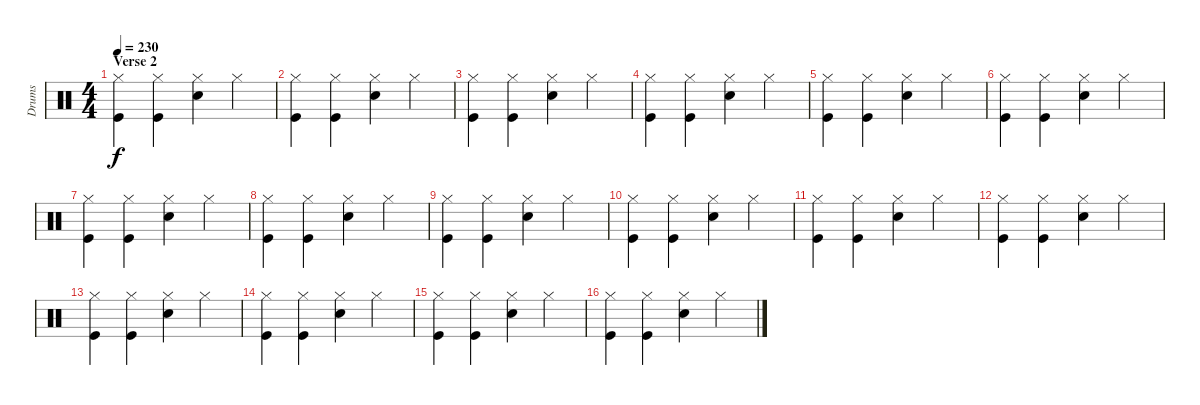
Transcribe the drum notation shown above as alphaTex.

\track ("Drums" "Drums") {instrument percussion}
\staff {score}
\articulation defaults
\ts (4 4)
\section ("" "Verse 2")
\tempo 230
\clef neutral
\ks c
("Hi-Hat (closed)" "Kick (hit)").4{dy f} ("Hi-Hat (closed)" "Kick (hit)").4 ("Hi-Hat (closed)" "Snare (hit) 2").4 "Hi-Hat (closed)".4 |
("Hi-Hat (closed)" "Kick (hit)").4 ("Hi-Hat (closed)" "Kick (hit)").4 ("Hi-Hat (closed)" "Snare (hit) 2").4 "Hi-Hat (closed)".4 |
("Hi-Hat (closed)" "Kick (hit)").4 ("Hi-Hat (closed)" "Kick (hit)").4 ("Hi-Hat (closed)" "Snare (hit) 2").4 "Hi-Hat (closed)".4 |
("Hi-Hat (closed)" "Kick (hit)").4 ("Hi-Hat (closed)" "Kick (hit)").4 ("Hi-Hat (closed)" "Snare (hit) 2").4 "Hi-Hat (closed)".4 |
("Hi-Hat (closed)" "Kick (hit)").4 ("Hi-Hat (closed)" "Kick (hit)").4 ("Hi-Hat (closed)" "Snare (hit) 2").4 "Hi-Hat (closed)".4 |
("Hi-Hat (closed)" "Kick (hit)").4 ("Hi-Hat (closed)" "Kick (hit)").4 ("Hi-Hat (closed)" "Snare (hit) 2").4 "Hi-Hat (closed)".4 |
("Hi-Hat (closed)" "Kick (hit)").4 ("Hi-Hat (closed)" "Kick (hit)").4 ("Hi-Hat (closed)" "Snare (hit) 2").4 "Hi-Hat (closed)".4 |
("Hi-Hat (closed)" "Kick (hit)").4 ("Hi-Hat (closed)" "Kick (hit)").4 ("Hi-Hat (closed)" "Snare (hit) 2").4 "Hi-Hat (closed)".4 |
("Hi-Hat (closed)" "Kick (hit)").4 ("Hi-Hat (closed)" "Kick (hit)").4 ("Hi-Hat (closed)" "Snare (hit) 2").4 "Hi-Hat (closed)".4 |
("Hi-Hat (closed)" "Kick (hit)").4 ("Hi-Hat (closed)" "Kick (hit)").4 ("Hi-Hat (closed)" "Snare (hit) 2").4 "Hi-Hat (closed)".4 |
("Hi-Hat (closed)" "Kick (hit)").4 ("Hi-Hat (closed)" "Kick (hit)").4 ("Hi-Hat (closed)" "Snare (hit) 2").4 "Hi-Hat (closed)".4 |
("Hi-Hat (closed)" "Kick (hit)").4 ("Hi-Hat (closed)" "Kick (hit)").4 ("Hi-Hat (closed)" "Snare (hit) 2").4 "Hi-Hat (closed)".4 |
("Hi-Hat (closed)" "Kick (hit)").4 ("Hi-Hat (closed)" "Kick (hit)").4 ("Hi-Hat (closed)" "Snare (hit) 2").4 "Hi-Hat (closed)".4 |
("Hi-Hat (closed)" "Kick (hit)").4 ("Hi-Hat (closed)" "Kick (hit)").4 ("Hi-Hat (closed)" "Snare (hit) 2").4 "Hi-Hat (closed)".4 |
("Hi-Hat (closed)" "Kick (hit)").4 ("Hi-Hat (closed)" "Kick (hit)").4 ("Hi-Hat (closed)" "Snare (hit) 2").4 "Hi-Hat (closed)".4 |
("Hi-Hat (closed)" "Kick (hit)").4 ("Hi-Hat (closed)" "Kick (hit)").4 ("Hi-Hat (closed)" "Snare (hit) 2").4 "Hi-Hat (closed)".4
